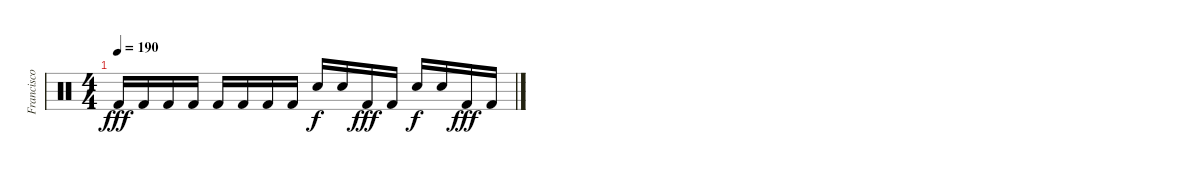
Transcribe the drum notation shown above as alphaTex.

\track ("Francisco Izquierdo (Percusión)" "Francisco ") {instrument percussion}
\staff {score}
\articulation defaults
\ts (4 4)
\tempo 190
\clef neutral
\ks c "Kick (hit) 2".16{dy fff} "Kick (hit) 2".16 "Kick (hit) 2".16 "Kick (hit) 2".16 "Kick (hit) 2".16 "Kick (hit) 2".16 "Kick (hit) 2".16 "Kick (hit) 2".16 "Electric Snare (hit)".16{dy f} "Electric Snare (hit)".16 "Kick (hit) 2".16{dy fff} "Kick (hit) 2".16 "Electric Snare (hit)".16{dy f} "Electric Snare (hit)".16 "Kick (hit) 2".16{dy fff} "Kick (hit) 2".16
